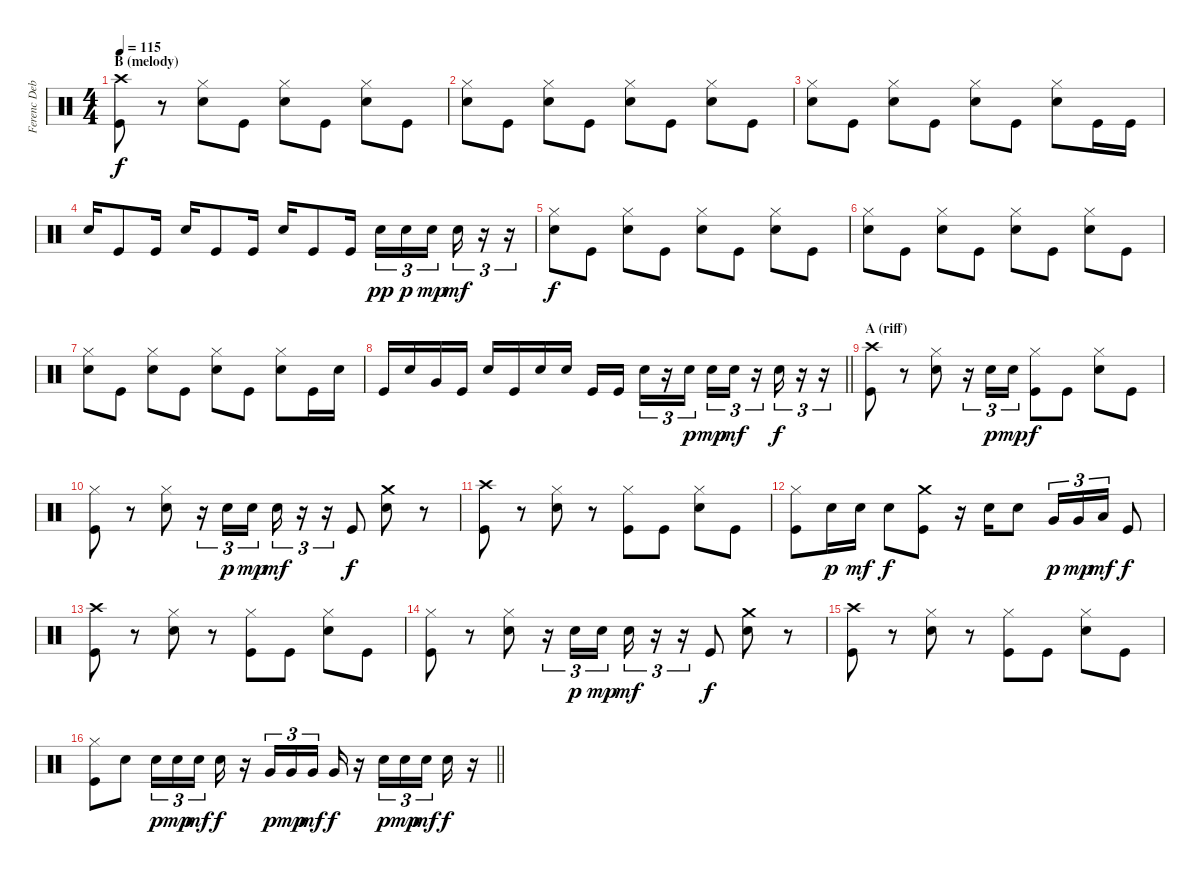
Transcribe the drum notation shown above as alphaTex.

\track ("Ferenc Debreceni \"Ciki\" (Drums)" "Ferenc Deb") {instrument percussion}
\staff {score}
\articulation defaults
\ts (4 4)
\section ("" "B (melody)")
\tempo 115
\clef neutral
\ks c
("Crash high (hit)" "Kick (hit)").8{dy f} r.8 ("Hi-Hat (closed)" "Electric Snare (hit)").8 "Kick (hit)".8 ("Hi-Hat (closed)" "Electric Snare (hit)").8 "Kick (hit)".8 ("Hi-Hat (closed)" "Electric Snare (hit)").8 "Kick (hit)".8 |
("Hi-Hat (closed)" "Electric Snare (hit)").8 "Kick (hit)".8 ("Hi-Hat (closed)" "Electric Snare (hit)").8 "Kick (hit)".8 ("Hi-Hat (closed)" "Electric Snare (hit)").8 "Kick (hit)".8 ("Hi-Hat (closed)" "Electric Snare (hit)").8 "Kick (hit)".8 |
("Hi-Hat (closed)" "Electric Snare (hit)").8 "Kick (hit)".8 ("Hi-Hat (closed)" "Electric Snare (hit)").8 "Kick (hit)".8 ("Hi-Hat (closed)" "Electric Snare (hit)").8 "Kick (hit)".8 ("Hi-Hat (closed)" "Electric Snare (hit)").8 "Kick (hit)".16 "Kick (hit)".16 |
"Electric Snare (hit)".16 "Kick (hit)".8 "Kick (hit)".16 "Electric Snare (hit)".16 "Kick (hit)".8 "Kick (hit)".16 "Electric Snare (hit)".16 "Kick (hit)".8 "Kick (hit)".16 "Electric Snare (hit)".16{tu (3 2) dy pp} "Electric Snare (hit)".16{tu (3 2) dy p} "Electric Snare (hit)".16{tu (3 2) dy mp beam splitsecondary} "Electric Snare (hit)".16{tu (3 2) dy mf} r.16{tu (3 2)} r.16{tu (3 2)} |
("Hi-Hat (closed)" "Electric Snare (hit)").8{dy f} "Kick (hit)".8 ("Hi-Hat (closed)" "Electric Snare (hit)").8 "Kick (hit)".8 ("Hi-Hat (closed)" "Electric Snare (hit)").8 "Kick (hit)".8 ("Hi-Hat (closed)" "Electric Snare (hit)").8 "Kick (hit)".8 |
("Hi-Hat (closed)" "Electric Snare (hit)").8 "Kick (hit)".8 ("Hi-Hat (closed)" "Electric Snare (hit)").8 "Kick (hit)".8 ("Hi-Hat (closed)" "Electric Snare (hit)").8 "Kick (hit)".8 ("Hi-Hat (closed)" "Electric Snare (hit)").8 "Kick (hit)".8 |
("Hi-Hat (closed)" "Electric Snare (hit)").8 "Kick (hit)".8 ("Hi-Hat (closed)" "Electric Snare (hit)").8 "Kick (hit)".8 ("Hi-Hat (closed)" "Electric Snare (hit)").8 "Kick (hit)".8 ("Hi-Hat (closed)" "Electric Snare (hit)").8 "Kick (hit)".16 "Electric Snare (hit)".16 |
\barLineRight lightlight "Kick (hit)".16 "Electric Snare (hit)".16 "Very Low Tom (hit)".16 "Kick (hit)".16 "Electric Snare (hit)".16 "Kick (hit)".16 "Electric Snare (hit)".16 "Electric Snare (hit)".16 "Kick (hit)".16 "Kick (hit)".16{beam splitsecondary} "Electric Snare (hit)".16{tu (3 2)}
r.16{tu (3 2)} "Electric Snare (hit)".16{tu (3 2) dy p} "Electric Snare (hit)".16{tu (3 2) dy mp} "Electric Snare (hit)".16{tu (3 2) dy mf} r.16{tu (3 2)} "Electric Snare (hit)".16{tu (3 2) dy f} r.16{tu (3 2)} r.16{tu (3 2)} |
\section ("" "A (riff)")
("Crash high (hit)" "Kick (hit)").8 r.8 ("Hi-Hat (closed)" "Electric Snare (hit)").8 r.16{tu (3 2)} "Electric Snare (hit)".16{tu (3 2) dy p} "Electric Snare (hit)".16{tu (3 2) dy mp} ("Hi-Hat (closed)" "Kick (hit)").8{dy f} "Kick (hit)".8 ("Hi-Hat (closed)" "Electric Snare (hit)").8 "Kick (hit)".8 |
("Hi-Hat (closed)" "Kick (hit)").8 r.8 ("Hi-Hat (closed)" "Electric Snare (hit)").8 r.16{tu (3 2)} "Electric Snare (hit)".16{tu (3 2) dy p} "Electric Snare (hit)".16{tu (3 2) dy mp} "Electric Snare (hit)".16{tu (3 2) dy mf} r.16{tu (3 2)} r.16{tu (3 2)} "Kick (hit)".8{dy f} ("Crash medium (hit)" "Electric Snare (hit)").8 r.8 |
("Crash high (hit)" "Kick (hit)").8 r.8 ("Hi-Hat (closed)" "Electric Snare (hit)").8 r.8 ("Hi-Hat (closed)" "Kick (hit)").8 "Kick (hit)".8 ("Hi-Hat (closed)" "Electric Snare (hit)").8 "Kick (hit)".8 |
("Hi-Hat (closed)" "Kick (hit)").8 "Electric Snare (hit)".16{dy p} "Electric Snare (hit)".16{dy mf} "Electric Snare (hit)".8{dy f} ("Crash medium (hit)" "Kick (hit)").8 r.16 "Electric Snare (hit)".16 "Electric Snare (hit)".8 "Very Low Tom (hit)".16{tu (3 2) dy p} "Very Low Tom (hit)".16{tu (3 2) dy mp} "Low Floor Tom (hit)".16{tu (3 2) dy mf} "Kick (hit)".8{dy f} |
("Crash high (hit)" "Kick (hit)").8 r.8 ("Hi-Hat (closed)" "Electric Snare (hit)").8 r.8 ("Hi-Hat (closed)" "Kick (hit)").8 "Kick (hit)".8 ("Hi-Hat (closed)" "Electric Snare (hit)").8 "Kick (hit)".8 |
("Hi-Hat (closed)" "Kick (hit)").8 r.8 ("Hi-Hat (closed)" "Electric Snare (hit)").8 r.16{tu (3 2)} "Electric Snare (hit)".16{tu (3 2) dy p} "Electric Snare (hit)".16{tu (3 2) dy mp} "Electric Snare (hit)".16{tu (3 2) dy mf} r.16{tu (3 2)} r.16{tu (3 2)} "Kick (hit)".8{dy f} ("Crash medium (hit)" "Electric Snare (hit)").8 r.8 |
("Crash high (hit)" "Kick (hit)").8 r.8 ("Hi-Hat (closed)" "Electric Snare (hit)").8 r.8 ("Hi-Hat (closed)" "Kick (hit)").8 "Kick (hit)".8 ("Hi-Hat (closed)" "Electric Snare (hit)").8 "Kick (hit)".8 |
\barLineRight lightlight
("Hi-Hat (closed)" "Kick (hit)").8 "Electric Snare (hit)".8 "Electric Snare (hit)".16{tu (3 2) dy p} "Electric Snare (hit)".16{tu (3 2) dy mp} "Electric Snare (hit)".16{tu (3 2) dy mf beam splitsecondary} "Electric Snare (hit)".16{dy f} r.16 "Very Low Tom (hit)".16{tu (3 2) dy p} "Very Low Tom (hit)".16{tu (3 2) dy mp} "Very Low Tom (hit)".16{tu (3 2) dy mf beam splitsecondary} "Very Low Tom (hit)".16{dy f} r.16 "Electric Snare (hit)".16{tu (3 2) dy p} "Electric Snare (hit)".16{tu (3 2) dy mp} "Electric Snare (hit)".16{tu (3 2) dy mf beam splitsecondary} "Electric Snare (hit)".16{dy f} r.16
